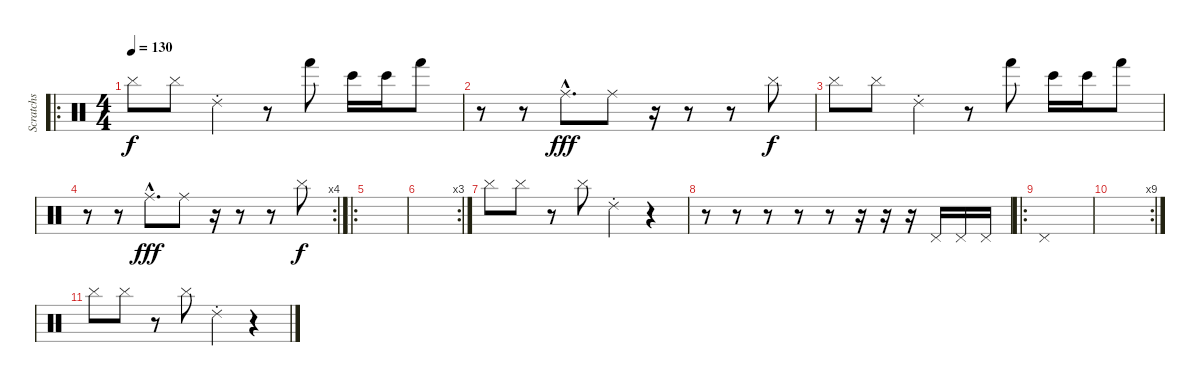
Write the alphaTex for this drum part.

\track ("Scratchs" "Scratchs") {instrument percussion}
\staff {score}
\articulation defaults
\ro
\ts (4 4)
\tempo 130
\clef neutral
\ks c "Cymbal (hit)".8{dy f} "Cymbal (hit)".8 "Ride (choke) 2".4
r.8 "Hand (hit)".8 "Bongo High (hit)".16 "Bongo High (hit)".16 "Hand (hit)".8 |
r.8 r.8 "Ride (middle)"{hac}.8{d dy fff} "Ride (middle)".8 r.16 r.8 r.8 "Cymbal (hit)".8{dy f} |
"Cymbal (hit)".8 "Cymbal (hit)".8 "Ride (choke) 2".4 r.8 "Hand (hit)".8 "Bongo High (hit)".16 "Bongo High (hit)".16 "Hand (hit)".8 |
\rc 4
r.8 r.8 "Ride (middle)"{hac}.8{d dy fff} "Ride (middle)".8 r.16 r.8 r.8 "Cymbal (hit)".8{dy f} |
\ro
|
\rc 3
|
"Cymbal (hit)".8 "Cymbal (hit)".8 r.8 "Cymbal (hit)".8 "Ride (choke) 2".4 r.4 |
r.8 r.8 r.8 r.8 r.8 r.16 r.16 r.16 "Pedal Hi-Hat (hit)".16 "Pedal Hi-Hat (hit)".16 "Pedal Hi-Hat (hit)".16 |
\ro "Pedal Hi-Hat (hit)".1
|
\rc 9
|
"Cymbal (hit)".8 "Cymbal (hit)".8 r.8 "Cymbal (hit)".8 "Ride (choke) 2".4 r.4
